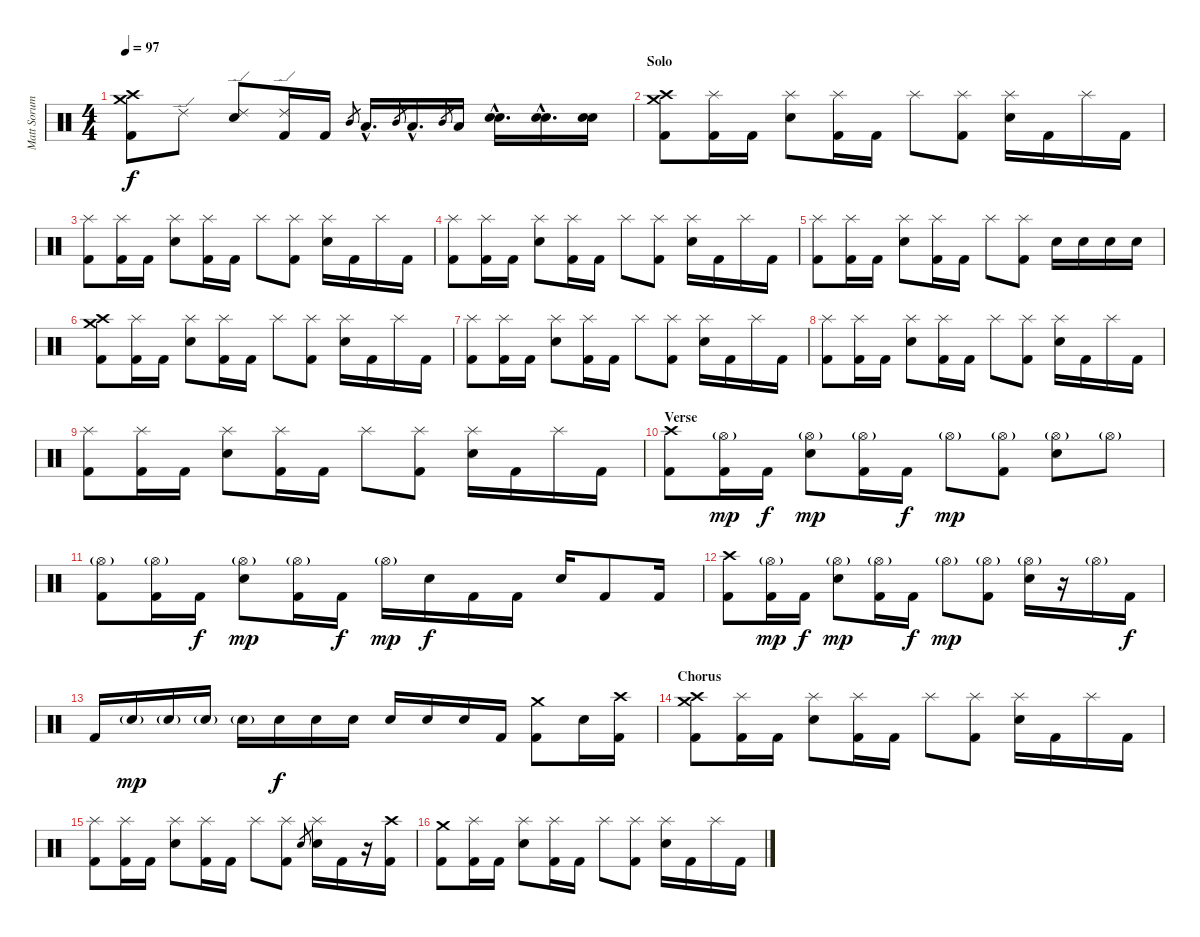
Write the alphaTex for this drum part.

\track ("Matt Sorum" "Matt Sorum") {instrument percussion}
\staff {score}
\articulation defaults
\ts (4 4)
\tempo 97
\clef neutral
\ks c
("Crash medium (hit)" "Crash high (hit)" "Kick (hit) 2").8{dy f} "Ride (edge) 2".8 ("Ride (edge) 2" "Electric Snare (hit)").8 ("Ride (edge) 2" "Kick (hit) 2").16 "Kick (hit) 2".16 "Mid Tom (hit)".8{gr} "Low Tom (hit)"{hac}.16{d} "Mid Tom (hit)".8{gr} "Low Tom (hit)"{hac}.16{d} "Mid Tom (hit)".8{gr} "Low Tom (hit)".16 ("Snare (hit) 2"{hac} "Electric Snare (hit)"{hac}).16{d} ("Snare (hit) 2"{hac} "Electric Snare (hit)"{hac}).16{d} ("Snare (hit) 2" "Electric Snare (hit)").16 |
\section ("" "Solo")
("Crash medium (hit)" "Crash high (hit)" "Kick (hit) 2").8 ("Splash (hit)" "Kick (hit) 2").16 "Kick (hit) 2".16 ("Splash (hit)" "Electric Snare (hit)").8 ("Splash (hit)" "Kick (hit) 2").16 "Kick (hit) 2".16 "Splash (hit)".8 ("Splash (hit)" "Kick (hit) 2").8 ("Splash (hit)" "Electric Snare (hit)").16 "Kick (hit) 2".16 "Splash (hit)".16 "Kick (hit) 2".16 |
("Splash (hit)" "Kick (hit) 2").8 ("Splash (hit)" "Kick (hit) 2").16 "Kick (hit) 2".16 ("Splash (hit)" "Electric Snare (hit)").8 ("Splash (hit)" "Kick (hit) 2").16 "Kick (hit) 2".16 "Splash (hit)".8 ("Splash (hit)" "Kick (hit) 2").8 ("Splash (hit)" "Electric Snare (hit)").16 "Kick (hit) 2".16 "Splash (hit)".16 "Kick (hit) 2".16 |
("Splash (hit)" "Kick (hit) 2").8 ("Splash (hit)" "Kick (hit) 2").16 "Kick (hit) 2".16 ("Splash (hit)" "Electric Snare (hit)").8 ("Splash (hit)" "Kick (hit) 2").16 "Kick (hit) 2".16 "Splash (hit)".8 ("Splash (hit)" "Kick (hit) 2").8 ("Splash (hit)" "Electric Snare (hit)").16 "Kick (hit) 2".16 "Splash (hit)".16 "Kick (hit) 2".16 |
("Splash (hit)" "Kick (hit) 2").8 ("Splash (hit)" "Kick (hit) 2").16 "Kick (hit) 2".16 ("Splash (hit)" "Electric Snare (hit)").8 ("Splash (hit)" "Kick (hit) 2").16 "Kick (hit) 2".16 "Splash (hit)".8 ("Splash (hit)" "Kick (hit) 2").8 "Electric Snare (hit)".16 "Electric Snare (hit)".16 "Electric Snare (hit)".16 "Electric Snare (hit)".16 |
("Crash medium (hit)" "Crash high (hit)" "Kick (hit) 2").8 ("Splash (hit)" "Kick (hit) 2").16 "Kick (hit) 2".16 ("Splash (hit)" "Electric Snare (hit)").8 ("Splash (hit)" "Kick (hit) 2").16 "Kick (hit) 2".16 "Splash (hit)".8 ("Splash (hit)" "Kick (hit) 2").8 ("Splash (hit)" "Electric Snare (hit)").16 "Kick (hit) 2".16 "Splash (hit)".16 "Kick (hit) 2".16 |
("Splash (hit)" "Kick (hit) 2").8 ("Splash (hit)" "Kick (hit) 2").16 "Kick (hit) 2".16 ("Splash (hit)" "Electric Snare (hit)").8 ("Splash (hit)" "Kick (hit) 2").16 "Kick (hit) 2".16 "Splash (hit)".8 ("Splash (hit)" "Kick (hit) 2").8 ("Splash (hit)" "Electric Snare (hit)").16 "Kick (hit) 2".16 "Splash (hit)".16 "Kick (hit) 2".16 |
("Splash (hit)" "Kick (hit) 2").8 ("Splash (hit)" "Kick (hit) 2").16 "Kick (hit) 2".16 ("Splash (hit)" "Electric Snare (hit)").8 ("Splash (hit)" "Kick (hit) 2").16 "Kick (hit) 2".16 "Splash (hit)".8 ("Splash (hit)" "Kick (hit) 2").8 ("Splash (hit)" "Electric Snare (hit)").16 "Kick (hit) 2".16 "Splash (hit)".16 "Kick (hit) 2".16 |
("Splash (hit)" "Kick (hit) 2").8 ("Splash (hit)" "Kick (hit) 2").16 "Kick (hit) 2".16 ("Splash (hit)" "Electric Snare (hit)").8 ("Splash (hit)" "Kick (hit) 2").16 "Kick (hit) 2".16 "Splash (hit)".8 ("Splash (hit)" "Kick (hit) 2").8 ("Splash (hit)" "Electric Snare (hit)").16 "Kick (hit) 2".16 "Splash (hit)".16 "Kick (hit) 2".16 |
\section ("" "Verse")
("Crash high (hit)" "Kick (hit) 2").8 ("Hi-Hat (open)"{g} "Kick (hit) 2").16{dy mp} "Kick (hit) 2".16{dy f} ("Hi-Hat (open)"{g} "Electric Snare (hit)").8{dy mp} ("Hi-Hat (open)"{g} "Kick (hit) 2").16 "Kick (hit) 2".16{dy f} "Hi-Hat (open)"{g}.8{dy mp} ("Hi-Hat (open)"{g} "Kick (hit) 2").8 ("Hi-Hat (open)"{g} "Electric Snare (hit)").8 "Hi-Hat (open)"{g}.8 |
("Hi-Hat (open)"{g} "Kick (hit) 2").8 ("Hi-Hat (open)"{g} "Kick (hit) 2").16 "Kick (hit) 2".16{dy f} ("Hi-Hat (open)"{g} "Electric Snare (hit)").8{dy mp} ("Hi-Hat (open)"{g} "Kick (hit) 2").16 "Kick (hit) 2".16{dy f} "Hi-Hat (open)"{g}.16{dy mp} "Electric Snare (hit)".16{dy f} "Kick (hit) 2".16 "Kick (hit) 2".16 "Electric Snare (hit)".16 "Kick (hit) 2".8 "Kick (hit) 2".16 |
("Crash high (hit)" "Kick (hit) 2").8 ("Hi-Hat (open)"{g} "Kick (hit) 2").16{dy mp} "Kick (hit) 2".16{dy f} ("Hi-Hat (open)"{g} "Electric Snare (hit)").8{dy mp} ("Hi-Hat (open)"{g} "Kick (hit) 2").16 "Kick (hit) 2".16{dy f} "Hi-Hat (open)"{g}.8{dy mp} ("Hi-Hat (open)"{g} "Kick (hit) 2").8 ("Hi-Hat (open)"{g} "Electric Snare (hit)").16 r.16 "Hi-Hat (open)"{g}.16 "Kick (hit) 2".16{dy f} |
"Kick (hit) 2".16 "Electric Snare (hit)"{g}.16{dy mp} "Electric Snare (hit)"{g}.16 "Electric Snare (hit)"{g}.16 "Electric Snare (hit)"{g}.16 "Electric Snare (hit)".16{dy f} "Electric Snare (hit)".16 "Electric Snare (hit)".16 "Electric Snare (hit)".16 "Electric Snare (hit)".16 "Electric Snare (hit)".16 "Kick (hit) 2".16 ("Crash medium (hit)" "Kick (hit) 2").8 "Electric Snare (hit)".16 ("Crash high (hit)" "Kick (hit) 2").16 |
\section ("" "Chorus")
("Crash medium (hit)" "Crash high (hit)" "Kick (hit) 2").8 ("Splash (hit)" "Kick (hit) 2").16 "Kick (hit) 2".16 ("Splash (hit)" "Electric Snare (hit)").8 ("Splash (hit)" "Kick (hit) 2").16 "Kick (hit) 2".16 "Splash (hit)".8 ("Splash (hit)" "Kick (hit) 2").8 ("Splash (hit)" "Electric Snare (hit)").16 "Kick (hit) 2".16 "Splash (hit)".16 "Kick (hit) 2".16 |
("Splash (hit)" "Kick (hit) 2").8 ("Splash (hit)" "Kick (hit) 2").16 "Kick (hit) 2".16 ("Splash (hit)" "Electric Snare (hit)").8 ("Splash (hit)" "Kick (hit) 2").16 "Kick (hit) 2".16 "Splash (hit)".8 ("Splash (hit)" "Kick (hit) 2").8 "Electric Snare (hit)".8{gr} ("Splash (hit)" "Electric Snare (hit)").16 "Kick (hit) 2".16 r.16 ("Crash high (hit)" "Kick (hit) 2").16 |
("Crash medium (hit)" "Kick (hit) 2").8 ("Splash (hit)" "Kick (hit) 2").16 "Kick (hit) 2".16 ("Splash (hit)" "Electric Snare (hit)").8 ("Splash (hit)" "Kick (hit) 2").16 "Kick (hit) 2".16 "Splash (hit)".8 ("Splash (hit)" "Kick (hit) 2").8 ("Splash (hit)" "Electric Snare (hit)").16 "Kick (hit) 2".16 "Splash (hit)".16 "Kick (hit) 2".16
